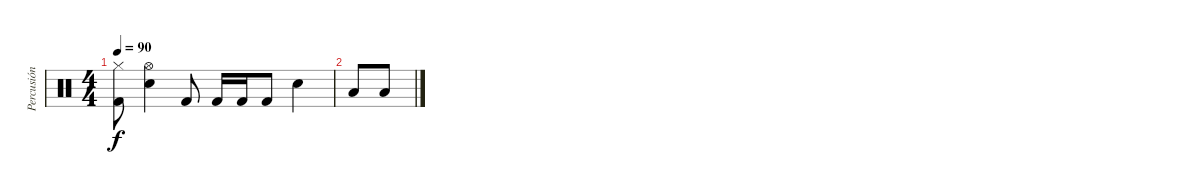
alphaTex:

\track ("Percusión" "Percusión") {instrument percussion}
\staff {score}
\articulation defaults
\ts (4 4)
\tempo 90
\clef neutral
\ks c
("Hi-Hat (closed)" "Kick (hit) 2").8{dy f} ("Hi-Hat (open)" "Electric Snare (hit)").4 "Kick (hit) 2".8 "Kick (hit) 2".16 "Kick (hit) 2".16 "Kick (hit) 2".8 "Electric Snare (hit)".4 |
"Low Floor Tom (hit)".8 "Low Floor Tom (hit)".8
